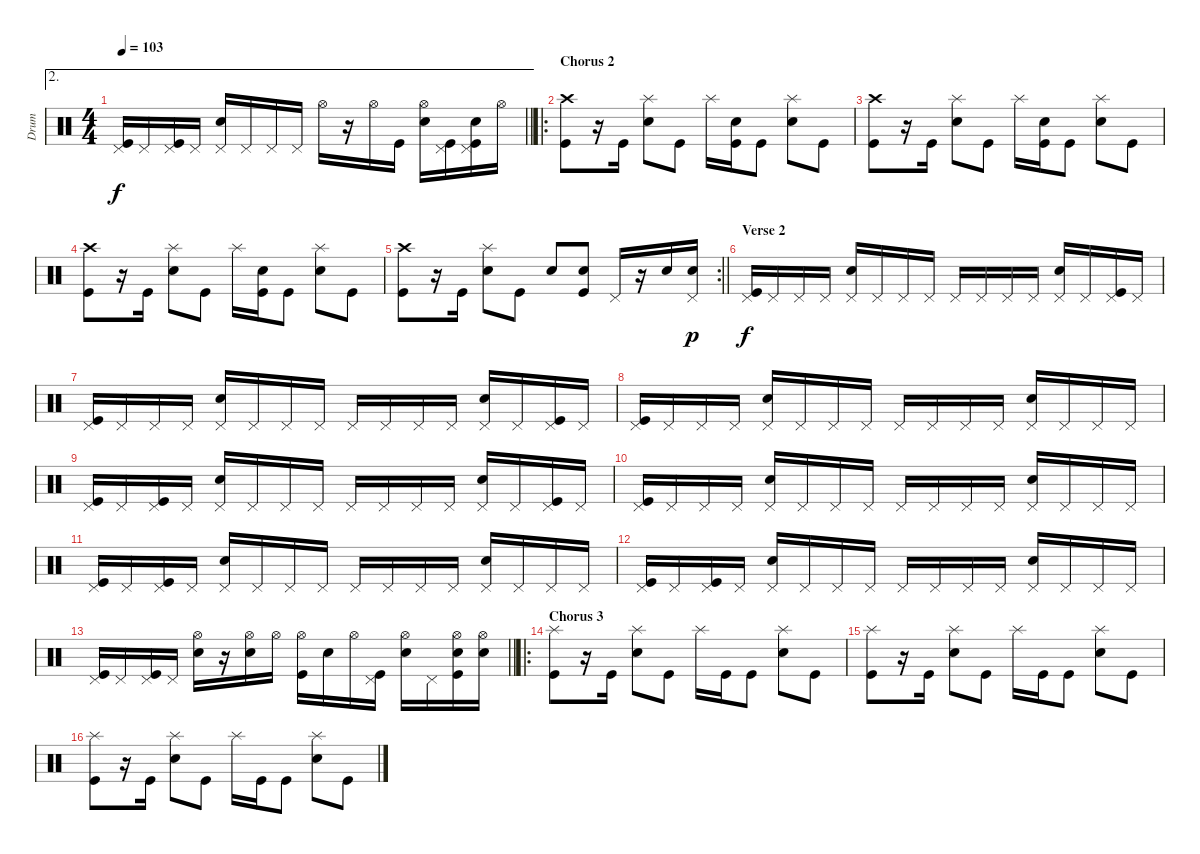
\track ("Drum" "Drum") {instrument percussion}
\staff {score}
\articulation defaults
\ae 2
\ts (4 4)
\tempo 103
\clef neutral
\barLineRight lightlight
\ks c
("Pedal Hi-Hat (hit)" "Kick (hit)").16{dy f} "Pedal Hi-Hat (hit)".16 ("Pedal Hi-Hat (hit)" "Kick (hit)").16 "Pedal Hi-Hat (hit)".16 ("Pedal Hi-Hat (hit)" "Snare (hit) 2").16 "Pedal Hi-Hat (hit)".16 "Pedal Hi-Hat (hit)".16 "Pedal Hi-Hat (hit)".16 "Hi-Hat (open)".16 r.16 "Hi-Hat (open)".16 "Kick (hit)".16 ("Hi-Hat (open)" "Snare (hit) 2").16 ("Pedal Hi-Hat (hit)" "Kick (hit)").16 ("Pedal Hi-Hat (hit)" "Snare (hit) 2" "Kick (hit)").16 "Hi-Hat (open)".16 |
\ro
\section ("" "Chorus 2")
("Crash high (hit)" "Kick (hit)").8 r.16 "Kick (hit)".16 ("Splash (hit)" "Snare (hit) 2").8 "Kick (hit)".8 "Splash (hit)".16 ("Snare (hit) 2" "Kick (hit)").16 "Kick (hit)".8 ("Splash (hit)" "Snare (hit) 2").8 "Kick (hit)".8 |
("Crash high (hit)" "Kick (hit)").8 r.16 "Kick (hit)".16 ("Splash (hit)" "Snare (hit) 2").8 "Kick (hit)".8 "Splash (hit)".16 ("Snare (hit) 2" "Kick (hit)").16 "Kick (hit)".8 ("Splash (hit)" "Snare (hit) 2").8 "Kick (hit)".8 |
("Crash high (hit)" "Kick (hit)").8 r.16 "Kick (hit)".16 ("Splash (hit)" "Snare (hit) 2").8 "Kick (hit)".8 "Splash (hit)".16 ("Snare (hit) 2" "Kick (hit)").16 "Kick (hit)".8 ("Splash (hit)" "Snare (hit) 2").8 "Kick (hit)".8 |
\rc 2
\barLineRight lightlight
("Crash high (hit)" "Kick (hit)").8 r.16 "Kick (hit)".16 ("Splash (hit)" "Snare (hit) 2").8 "Kick (hit)".8 "Snare (hit) 2".8 ("Snare (hit) 2" "Kick (hit)").8 "Pedal Hi-Hat (hit)".16 r.16 "Snare (hit) 2".16 ("Pedal Hi-Hat (hit)" "Snare (hit) 2").16{dy p} |
\section ("" "Verse 2")
("Pedal Hi-Hat (hit)" "Kick (hit)").16{dy f} "Pedal Hi-Hat (hit)".16 "Pedal Hi-Hat (hit)".16 "Pedal Hi-Hat (hit)".16 ("Pedal Hi-Hat (hit)" "Snare (hit) 2").16 "Pedal Hi-Hat (hit)".16 "Pedal Hi-Hat (hit)".16 "Pedal Hi-Hat (hit)".16 "Pedal Hi-Hat (hit)".16 "Pedal Hi-Hat (hit)".16 "Pedal Hi-Hat (hit)".16 "Pedal Hi-Hat (hit)".16 ("Pedal Hi-Hat (hit)" "Snare (hit) 2").16 "Pedal Hi-Hat (hit)".16 ("Pedal Hi-Hat (hit)" "Kick (hit)").16 "Pedal Hi-Hat (hit)".16 |
("Pedal Hi-Hat (hit)" "Kick (hit)").16 "Pedal Hi-Hat (hit)".16 "Pedal Hi-Hat (hit)".16 "Pedal Hi-Hat (hit)".16 ("Pedal Hi-Hat (hit)" "Snare (hit) 2").16 "Pedal Hi-Hat (hit)".16 "Pedal Hi-Hat (hit)".16 "Pedal Hi-Hat (hit)".16 "Pedal Hi-Hat (hit)".16 "Pedal Hi-Hat (hit)".16 "Pedal Hi-Hat (hit)".16 "Pedal Hi-Hat (hit)".16 ("Pedal Hi-Hat (hit)" "Snare (hit) 2").16 "Pedal Hi-Hat (hit)".16 ("Pedal Hi-Hat (hit)" "Kick (hit)").16 "Pedal Hi-Hat (hit)".16 |
("Pedal Hi-Hat (hit)" "Kick (hit)").16 "Pedal Hi-Hat (hit)".16 "Pedal Hi-Hat (hit)".16 "Pedal Hi-Hat (hit)".16 ("Pedal Hi-Hat (hit)" "Snare (hit) 2").16 "Pedal Hi-Hat (hit)".16 "Pedal Hi-Hat (hit)".16 "Pedal Hi-Hat (hit)".16 "Pedal Hi-Hat (hit)".16 "Pedal Hi-Hat (hit)".16 "Pedal Hi-Hat (hit)".16 "Pedal Hi-Hat (hit)".16 ("Pedal Hi-Hat (hit)" "Snare (hit) 2").16 "Pedal Hi-Hat (hit)".16 "Pedal Hi-Hat (hit)".16 "Pedal Hi-Hat (hit)".16 |
("Pedal Hi-Hat (hit)" "Kick (hit)").16 "Pedal Hi-Hat (hit)".16 ("Pedal Hi-Hat (hit)" "Kick (hit)").16 "Pedal Hi-Hat (hit)".16 ("Pedal Hi-Hat (hit)" "Snare (hit) 2").16 "Pedal Hi-Hat (hit)".16 "Pedal Hi-Hat (hit)".16 "Pedal Hi-Hat (hit)".16 "Pedal Hi-Hat (hit)".16 "Pedal Hi-Hat (hit)".16 "Pedal Hi-Hat (hit)".16 "Pedal Hi-Hat (hit)".16 ("Pedal Hi-Hat (hit)" "Snare (hit) 2").16 "Pedal Hi-Hat (hit)".16 ("Pedal Hi-Hat (hit)" "Kick (hit)").16 "Pedal Hi-Hat (hit)".16 |
("Pedal Hi-Hat (hit)" "Kick (hit)").16 "Pedal Hi-Hat (hit)".16 "Pedal Hi-Hat (hit)".16 "Pedal Hi-Hat (hit)".16 ("Pedal Hi-Hat (hit)" "Snare (hit) 2").16 "Pedal Hi-Hat (hit)".16 "Pedal Hi-Hat (hit)".16 "Pedal Hi-Hat (hit)".16 "Pedal Hi-Hat (hit)".16 "Pedal Hi-Hat (hit)".16 "Pedal Hi-Hat (hit)".16 "Pedal Hi-Hat (hit)".16 ("Pedal Hi-Hat (hit)" "Snare (hit) 2").16 "Pedal Hi-Hat (hit)".16 "Pedal Hi-Hat (hit)".16 "Pedal Hi-Hat (hit)".16 |
("Pedal Hi-Hat (hit)" "Kick (hit)").16 "Pedal Hi-Hat (hit)".16 ("Pedal Hi-Hat (hit)" "Kick (hit)").16 "Pedal Hi-Hat (hit)".16 ("Pedal Hi-Hat (hit)" "Snare (hit) 2").16 "Pedal Hi-Hat (hit)".16 "Pedal Hi-Hat (hit)".16 "Pedal Hi-Hat (hit)".16 "Pedal Hi-Hat (hit)".16 "Pedal Hi-Hat (hit)".16 "Pedal Hi-Hat (hit)".16 "Pedal Hi-Hat (hit)".16 ("Pedal Hi-Hat (hit)" "Snare (hit) 2").16 "Pedal Hi-Hat (hit)".16 "Pedal Hi-Hat (hit)".16 "Pedal Hi-Hat (hit)".16 |
("Pedal Hi-Hat (hit)" "Kick (hit)").16 "Pedal Hi-Hat (hit)".16 ("Pedal Hi-Hat (hit)" "Kick (hit)").16 "Pedal Hi-Hat (hit)".16 ("Pedal Hi-Hat (hit)" "Snare (hit) 2").16 "Pedal Hi-Hat (hit)".16 "Pedal Hi-Hat (hit)".16 "Pedal Hi-Hat (hit)".16 "Pedal Hi-Hat (hit)".16 "Pedal Hi-Hat (hit)".16 "Pedal Hi-Hat (hit)".16 "Pedal Hi-Hat (hit)".16 ("Pedal Hi-Hat (hit)" "Snare (hit) 2").16 "Pedal Hi-Hat (hit)".16 "Pedal Hi-Hat (hit)".16 "Pedal Hi-Hat (hit)".16 |
\barLineRight lightlight
("Pedal Hi-Hat (hit)" "Kick (hit)").16 "Pedal Hi-Hat (hit)".16 ("Pedal Hi-Hat (hit)" "Kick (hit)").16 "Pedal Hi-Hat (hit)".16 ("Hi-Hat (open)" "Snare (hit) 2").16 r.16 ("Hi-Hat (open)" "Snare (hit) 2").16 "Hi-Hat (open)".16 ("Hi-Hat (open)" "Kick (hit)").16 "Snare (hit) 2".16 "Hi-Hat (open)".16 ("Pedal Hi-Hat (hit)" "Kick (hit)").16 ("Hi-Hat (open)" "Snare (hit) 2").16 "Pedal Hi-Hat (hit)".16 ("Hi-Hat (open)" "Snare (hit) 2" "Kick (hit)").16 ("Hi-Hat (open)" "Snare (hit) 2").16 |
\ro
\section ("" "Chorus 3")
("Splash (hit)" "Kick (hit)").8 r.16 "Kick (hit)".16 ("Splash (hit)" "Snare (hit) 2").8 "Kick (hit)".8 "Splash (hit)".16 "Kick (hit)".16 "Kick (hit)".8 ("Splash (hit)" "Snare (hit) 2").8 "Kick (hit)".8 |
("Splash (hit)" "Kick (hit)").8 r.16 "Kick (hit)".16 ("Splash (hit)" "Snare (hit) 2").8 "Kick (hit)".8 "Splash (hit)".16 "Kick (hit)".16 "Kick (hit)".8 ("Splash (hit)" "Snare (hit) 2").8 "Kick (hit)".8 |
("Splash (hit)" "Kick (hit)").8 r.16 "Kick (hit)".16 ("Splash (hit)" "Snare (hit) 2").8 "Kick (hit)".8 "Splash (hit)".16 "Kick (hit)".16 "Kick (hit)".8 ("Splash (hit)" "Snare (hit) 2").8 "Kick (hit)".8
